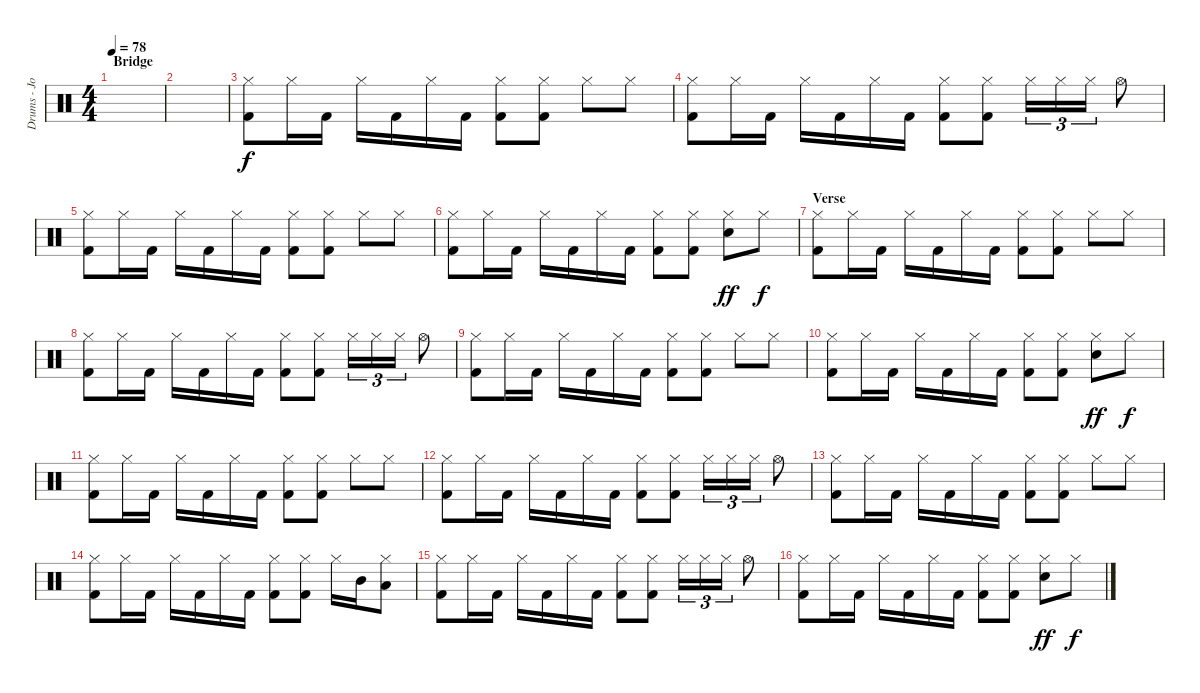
\track ("Drums - Jorg Michael" "Drums - Jo") {instrument percussion}
\staff {score}
\articulation defaults
\ts (4 4)
\section ("" "Bridge")
\tempo 78
\clef neutral
\ks c
|
|
("Hi-Hat (closed)" "Kick (hit) 2").8{dy f} "Hi-Hat (closed)".16 "Kick (hit) 2".16 "Hi-Hat (closed)".16 "Kick (hit) 2".16 "Hi-Hat (closed)".16 "Kick (hit) 2".16 ("Hi-Hat (closed)" "Kick (hit) 2").8 ("Hi-Hat (closed)" "Kick (hit) 2").8 "Hi-Hat (closed)".8 "Hi-Hat (closed)".8 |
("Hi-Hat (closed)" "Kick (hit) 2").8 "Hi-Hat (closed)".16 "Kick (hit) 2".16 "Hi-Hat (closed)".16 "Kick (hit) 2".16 "Hi-Hat (closed)".16 "Kick (hit) 2".16 ("Hi-Hat (closed)" "Kick (hit) 2").8 ("Hi-Hat (closed)" "Kick (hit) 2").8 "Hi-Hat (closed)".16{tu (3 2)} "Hi-Hat (closed)".16{tu (3 2)} "Hi-Hat (closed)".16{tu (3 2)} "Hi-Hat (open)".8 |
("Hi-Hat (closed)" "Kick (hit) 2").8 "Hi-Hat (closed)".16 "Kick (hit) 2".16 "Hi-Hat (closed)".16 "Kick (hit) 2".16 "Hi-Hat (closed)".16 "Kick (hit) 2".16 ("Hi-Hat (closed)" "Kick (hit) 2").8 ("Hi-Hat (closed)" "Kick (hit) 2").8 "Hi-Hat (closed)".8 "Hi-Hat (closed)".8 |
("Hi-Hat (closed)" "Kick (hit) 2").8 "Hi-Hat (closed)".16 "Kick (hit) 2".16 "Hi-Hat (closed)".16 "Kick (hit) 2".16 "Hi-Hat (closed)".16 "Kick (hit) 2".16 ("Hi-Hat (closed)" "Kick (hit) 2").8 ("Hi-Hat (closed)" "Kick (hit) 2").8 ("Hi-Hat (closed)" "Electric Snare (hit)").8{dy ff} "Hi-Hat (closed)".8{dy f} |
\section ("" "Verse")
("Hi-Hat (closed)" "Kick (hit) 2").8 "Hi-Hat (closed)".16 "Kick (hit) 2".16 "Hi-Hat (closed)".16 "Kick (hit) 2".16 "Hi-Hat (closed)".16 "Kick (hit) 2".16 ("Hi-Hat (closed)" "Kick (hit) 2").8 ("Hi-Hat (closed)" "Kick (hit) 2").8 "Hi-Hat (closed)".8 "Hi-Hat (closed)".8 |
("Hi-Hat (closed)" "Kick (hit) 2").8 "Hi-Hat (closed)".16 "Kick (hit) 2".16 "Hi-Hat (closed)".16 "Kick (hit) 2".16 "Hi-Hat (closed)".16 "Kick (hit) 2".16 ("Hi-Hat (closed)" "Kick (hit) 2").8 ("Hi-Hat (closed)" "Kick (hit) 2").8 "Hi-Hat (closed)".16{tu (3 2)} "Hi-Hat (closed)".16{tu (3 2)} "Hi-Hat (closed)".16{tu (3 2)} "Hi-Hat (open)".8 |
("Hi-Hat (closed)" "Kick (hit) 2").8 "Hi-Hat (closed)".16 "Kick (hit) 2".16 "Hi-Hat (closed)".16 "Kick (hit) 2".16 "Hi-Hat (closed)".16 "Kick (hit) 2".16 ("Hi-Hat (closed)" "Kick (hit) 2").8 ("Hi-Hat (closed)" "Kick (hit) 2").8 "Hi-Hat (closed)".8 "Hi-Hat (closed)".8 |
("Hi-Hat (closed)" "Kick (hit) 2").8 "Hi-Hat (closed)".16 "Kick (hit) 2".16 "Hi-Hat (closed)".16 "Kick (hit) 2".16 "Hi-Hat (closed)".16 "Kick (hit) 2".16 ("Hi-Hat (closed)" "Kick (hit) 2").8 ("Hi-Hat (closed)" "Kick (hit) 2").8 ("Hi-Hat (closed)" "Electric Snare (hit)").8{dy ff} "Hi-Hat (closed)".8{dy f} |
("Hi-Hat (closed)" "Kick (hit) 2").8 "Hi-Hat (closed)".16 "Kick (hit) 2".16 "Hi-Hat (closed)".16 "Kick (hit) 2".16 "Hi-Hat (closed)".16 "Kick (hit) 2".16 ("Hi-Hat (closed)" "Kick (hit) 2").8 ("Hi-Hat (closed)" "Kick (hit) 2").8 "Hi-Hat (closed)".8 "Hi-Hat (closed)".8 |
("Hi-Hat (closed)" "Kick (hit) 2").8 "Hi-Hat (closed)".16 "Kick (hit) 2".16 "Hi-Hat (closed)".16 "Kick (hit) 2".16 "Hi-Hat (closed)".16 "Kick (hit) 2".16 ("Hi-Hat (closed)" "Kick (hit) 2").8 ("Hi-Hat (closed)" "Kick (hit) 2").8 "Hi-Hat (closed)".16{tu (3 2)} "Hi-Hat (closed)".16{tu (3 2)} "Hi-Hat (closed)".16{tu (3 2)} "Hi-Hat (open)".8 |
("Hi-Hat (closed)" "Kick (hit) 2").8 "Hi-Hat (closed)".16 "Kick (hit) 2".16 "Hi-Hat (closed)".16 "Kick (hit) 2".16 "Hi-Hat (closed)".16 "Kick (hit) 2".16 ("Hi-Hat (closed)" "Kick (hit) 2").8 ("Hi-Hat (closed)" "Kick (hit) 2").8 "Hi-Hat (closed)".8 "Hi-Hat (closed)".8 |
("Hi-Hat (closed)" "Kick (hit) 2").8 "Hi-Hat (closed)".16 "Kick (hit) 2".16 "Hi-Hat (closed)".16 "Kick (hit) 2".16 "Hi-Hat (closed)".16 "Kick (hit) 2".16 ("Hi-Hat (closed)" "Kick (hit) 2").8 ("Hi-Hat (closed)" "Kick (hit) 2").8 "Hi-Hat (closed)".16 "Mid Tom (hit)".16 ("Hi-Hat (closed)" "Low Floor Tom (hit)").8 |
\section ("" "")
("Hi-Hat (closed)" "Kick (hit) 2").8 "Hi-Hat (closed)".16 "Kick (hit) 2".16 "Hi-Hat (closed)".16 "Kick (hit) 2".16 "Hi-Hat (closed)".16 "Kick (hit) 2".16 ("Hi-Hat (closed)" "Kick (hit) 2").8 ("Hi-Hat (closed)" "Kick (hit) 2").8 "Hi-Hat (closed)".16{tu (3 2)} "Hi-Hat (closed)".16{tu (3 2)} "Hi-Hat (closed)".16{tu (3 2)} "Hi-Hat (open)".8 |
("Hi-Hat (closed)" "Kick (hit) 2").8 "Hi-Hat (closed)".16 "Kick (hit) 2".16 "Hi-Hat (closed)".16 "Kick (hit) 2".16 "Hi-Hat (closed)".16 "Kick (hit) 2".16 ("Hi-Hat (closed)" "Kick (hit) 2").8 ("Hi-Hat (closed)" "Kick (hit) 2").8 ("Hi-Hat (closed)" "Electric Snare (hit)").8{dy ff} "Hi-Hat (closed)".8{dy f}
